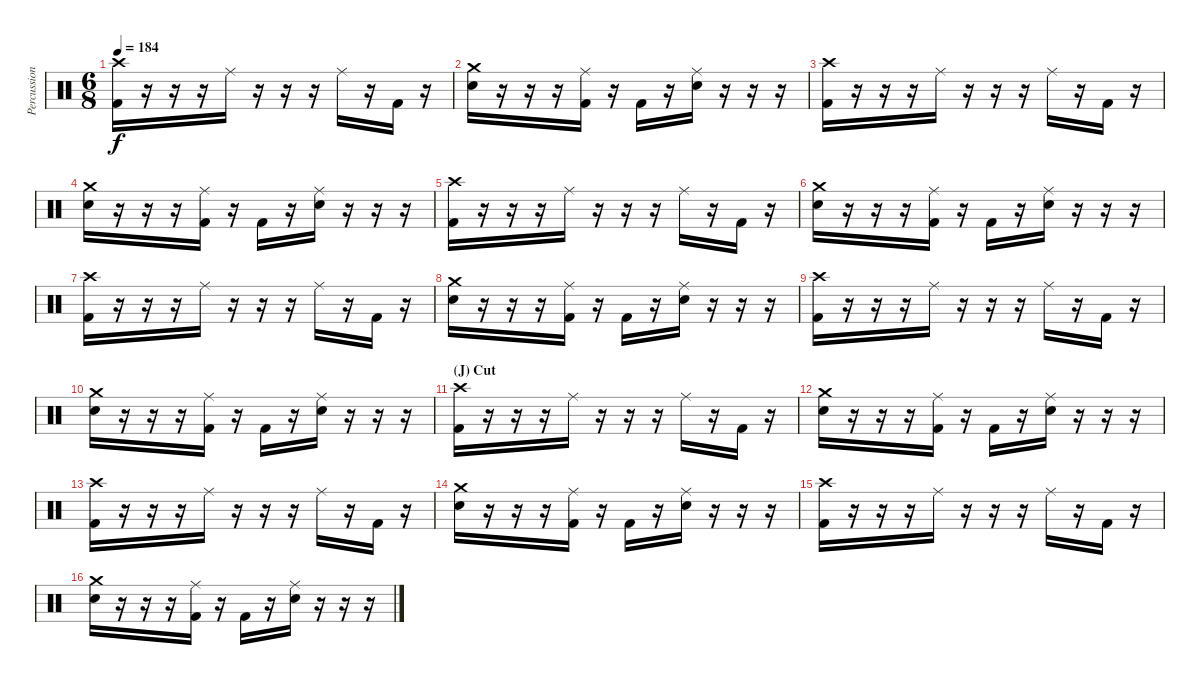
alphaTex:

\track ("Percussion" "Percussion") {instrument percussion}
\staff {score}
\articulation defaults
\ts (6 8)
\tempo 184
\clef neutral
\ks c
("Crash high (hit)" "Kick (hit) 2").16{dy f} r.16 r.16 r.16 "Ride (middle)".16 r.16 r.16 r.16 "Ride (middle)".16 r.16 "Kick (hit) 2".16 r.16 |
("Crash medium (hit)" "Electric Snare (hit)").16 r.16 r.16 r.16 ("Ride (middle)" "Kick (hit) 2").16 r.16 "Kick (hit) 2".16 r.16 ("Ride (middle)" "Electric Snare (hit)").16 r.16 r.16 r.16 |
("Crash high (hit)" "Kick (hit) 2").16 r.16 r.16 r.16 "Ride (middle)".16 r.16 r.16 r.16 "Ride (middle)".16 r.16 "Kick (hit) 2".16 r.16 |
("Crash medium (hit)" "Electric Snare (hit)").16 r.16 r.16 r.16 ("Ride (middle)" "Kick (hit) 2").16 r.16 "Kick (hit) 2".16 r.16 ("Ride (middle)" "Electric Snare (hit)").16 r.16 r.16 r.16 |
("Crash high (hit)" "Kick (hit) 2").16 r.16 r.16 r.16 "Ride (middle)".16 r.16 r.16 r.16 "Ride (middle)".16 r.16 "Kick (hit) 2".16 r.16 |
("Crash medium (hit)" "Electric Snare (hit)").16 r.16 r.16 r.16 ("Ride (middle)" "Kick (hit) 2").16 r.16 "Kick (hit) 2".16 r.16 ("Ride (middle)" "Electric Snare (hit)").16 r.16 r.16 r.16 |
("Crash high (hit)" "Kick (hit) 2").16 r.16 r.16 r.16 "Ride (middle)".16 r.16 r.16 r.16 "Ride (middle)".16 r.16 "Kick (hit) 2".16 r.16 |
("Crash medium (hit)" "Electric Snare (hit)").16 r.16 r.16 r.16 ("Ride (middle)" "Kick (hit) 2").16 r.16 "Kick (hit) 2".16 r.16 ("Ride (middle)" "Electric Snare (hit)").16 r.16 r.16 r.16 |
("Crash high (hit)" "Kick (hit) 2").16 r.16 r.16 r.16 "Ride (middle)".16 r.16 r.16 r.16 "Ride (middle)".16 r.16 "Kick (hit) 2".16 r.16 |
("Crash medium (hit)" "Electric Snare (hit)").16 r.16 r.16 r.16 ("Ride (middle)" "Kick (hit) 2").16 r.16 "Kick (hit) 2".16 r.16 ("Ride (middle)" "Electric Snare (hit)").16 r.16 r.16 r.16 |
\section ("" "(J) Cut")
("Crash high (hit)" "Kick (hit) 2").16 r.16 r.16 r.16 "Ride (middle)".16 r.16 r.16 r.16 "Ride (middle)".16 r.16 "Kick (hit) 2".16 r.16 |
("Crash medium (hit)" "Electric Snare (hit)").16 r.16 r.16 r.16 ("Ride (middle)" "Kick (hit) 2").16 r.16 "Kick (hit) 2".16 r.16 ("Ride (middle)" "Electric Snare (hit)").16 r.16 r.16 r.16 |
("Crash high (hit)" "Kick (hit) 2").16 r.16 r.16 r.16 "Ride (middle)".16 r.16 r.16 r.16 "Ride (middle)".16 r.16 "Kick (hit) 2".16 r.16 |
("Crash medium (hit)" "Electric Snare (hit)").16 r.16 r.16 r.16 ("Ride (middle)" "Kick (hit) 2").16 r.16 "Kick (hit) 2".16 r.16 ("Ride (middle)" "Electric Snare (hit)").16 r.16 r.16 r.16 |
("Crash high (hit)" "Kick (hit) 2").16 r.16 r.16 r.16 "Ride (middle)".16 r.16 r.16 r.16 "Ride (middle)".16 r.16 "Kick (hit) 2".16 r.16 |
("Crash medium (hit)" "Electric Snare (hit)").16 r.16 r.16 r.16 ("Ride (middle)" "Kick (hit) 2").16 r.16 "Kick (hit) 2".16 r.16 ("Ride (middle)" "Electric Snare (hit)").16 r.16 r.16 r.16
